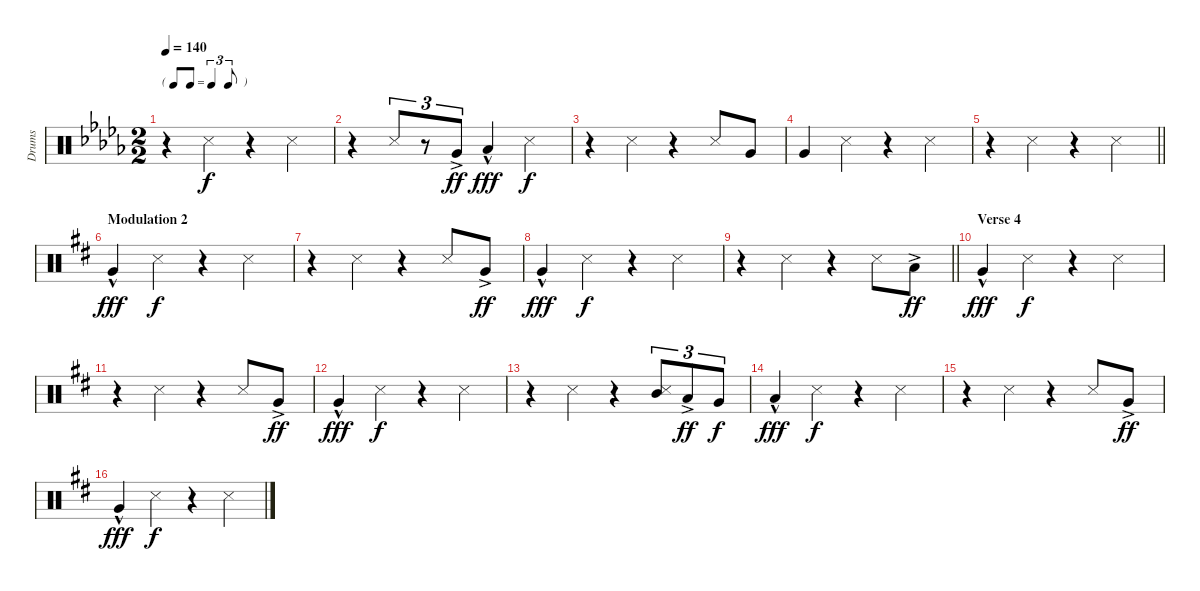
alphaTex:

\track ("Drums" "Drums") {instrument percussion}
\staff {score}
\articulation defaults
\ts (2 2)
\tf triplet8th
\tempo 140
\clef neutral
\ks bbminor
r.4{dy f} "Metronome (hit)".4 r.4 "Metronome (hit)".4 |
r.4 "Metronome (hit)".8{tu (3 2)} r.8{tu (3 2)} "Very Low Tom (hit)"{ac}.8{tu (3 2) dy ff} "Low Floor Tom (hit)"{hac}.4{dy fff} "Metronome (hit)".4{dy f} |
r.4 "Metronome (hit)".4 r.4 "Metronome (hit)".8 "Very Low Tom (hit)".8 |
"Very Low Tom (hit)".4 "Metronome (hit)".4 r.4 "Metronome (hit)".4 |
\barLineRight lightlight
r.4 "Metronome (hit)".4 r.4 "Metronome (hit)".4 |
\section ("" "Modulation 2")
\ks bminor "Very Low Tom (hit)"{hac}.4{dy fff} "Metronome (hit)".4{dy f}
r.4 "Metronome (hit)".4 |
r.4 "Metronome (hit)".4 r.4 "Metronome (hit)".8 "Very Low Tom (hit)"{ac}.8{dy ff} |
"Very Low Tom (hit)"{hac}.4{dy fff} "Metronome (hit)".4{dy f} r.4 "Metronome (hit)".4 |
\barLineRight lightlight
r.4 "Metronome (hit)".4 r.4 "Metronome (hit)".8 "Low Floor Tom (hit)"{ac}.8{dy ff} |
\section ("" "Verse 4")
"Very Low Tom (hit)"{hac}.4{dy fff} "Metronome (hit)".4{dy f} r.4 "Metronome (hit)".4 |
r.4 "Metronome (hit)".4 r.4 "Metronome (hit)".8 "Very Low Tom (hit)"{ac}.8{dy ff} |
"Very Low Tom (hit)"{hac}.4{dy fff} "Metronome (hit)".4{dy f} r.4 "Metronome (hit)".4 |
r.4 "Metronome (hit)".4 r.4 ("Metronome (hit)" "Mid Tom (hit)").8{tu (3 2)} "Low Tom (hit)"{ac}.8{tu (3 2) dy ff} "Very Low Tom (hit)".8{tu (3 2) dy f} |
"Low Floor Tom (hit)"{hac}.4{dy fff} "Metronome (hit)".4{dy f} r.4 "Metronome (hit)".4 |
r.4 "Metronome (hit)".4 r.4 "Metronome (hit)".8 "Very Low Tom (hit)"{ac}.8{dy ff} |
"Very Low Tom (hit)"{hac}.4{dy fff} "Metronome (hit)".4{dy f} r.4 "Metronome (hit)".4
